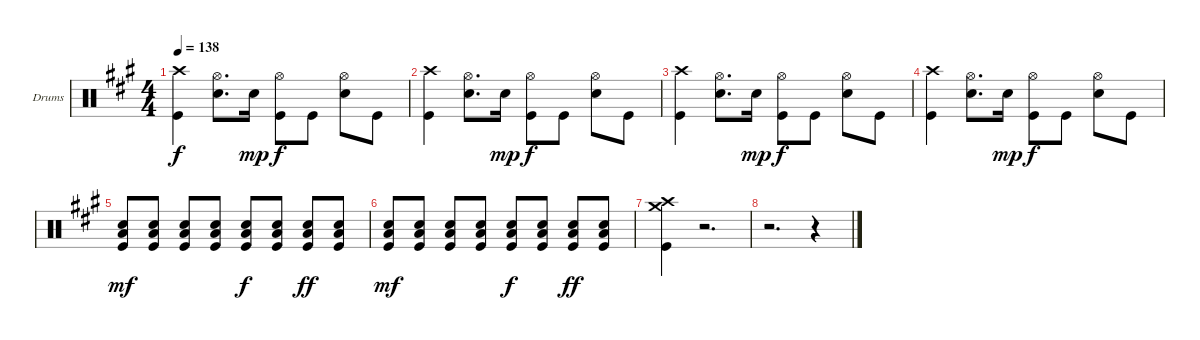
\defaultSystemsLayout 4
\bracketExtendMode groupsimilarinstruments
\firstSystemTrackNameOrientation horizontal
\otherSystemsTrackNameOrientation horizontal
\track ("Drumkit" "Drums") {instrument percussion}
\staff {score}
\articulation defaults
\ts (4 4)
\tempo 138
\clef neutral
\scale
0.941992
\ks a
("Crash high (hit)" "Kick (hit)").4{dy f} ("Hi-Hat (open)" "Snare (hit) 2").8{d} "Snare (hit) 2".16{dy mp} ("Hi-Hat (open)" "Kick (hit)").8{dy f} "Kick (hit)".8 ("Hi-Hat (open)" "Snare (hit) 2").8 "Kick (hit)".8 |
\scale
1.05801 ("Crash high (hit)" "Kick (hit)").4 ("Hi-Hat (open)" "Snare (hit) 2").8{d} "Snare (hit) 2".16{dy mp} ("Hi-Hat (open)" "Kick (hit)").8{dy f} "Kick (hit)".8 ("Hi-Hat (open)" "Snare (hit) 2").8 "Kick (hit)".8 |
\scale
0.941992 ("Crash high (hit)" "Kick (hit)").4 ("Hi-Hat (open)" "Snare (hit) 2").8{d} "Snare (hit) 2".16{dy mp} ("Hi-Hat (open)" "Kick (hit)").8{dy f} "Kick (hit)".8 ("Hi-Hat (open)" "Snare (hit) 2").8 "Kick (hit)".8 |
\scale
1.05801 ("Crash high (hit)" "Kick (hit)").4 ("Hi-Hat (open)" "Snare (hit) 2").8{d} "Snare (hit) 2".16{dy mp} ("Hi-Hat (open)" "Kick (hit)").8{dy f} "Kick (hit)".8 ("Hi-Hat (open)" "Snare (hit) 2").8 "Kick (hit)".8 |
\scale
0.941992 ("Snare (hit) 2" "Low Tom (hit)" "Kick (hit)").8{dy mf} ("Snare (hit) 2" "Low Tom (hit)" "Kick (hit)").8 ("Snare (hit) 2" "Low Tom (hit)" "Kick (hit)").8 ("Snare (hit) 2" "Low Tom (hit)" "Kick (hit)").8 ("Snare (hit) 2" "Low Tom (hit)" "Kick (hit)").8{dy f} ("Snare (hit) 2" "Low Tom (hit)" "Kick (hit)").8 ("Snare (hit) 2" "Low Tom (hit)" "Kick (hit)").8{dy ff} ("Snare (hit) 2" "Low Tom (hit)" "Kick (hit)").8 |
\scale
1.05801 ("Snare (hit) 2" "Low Tom (hit)" "Kick (hit)").8{dy mf} ("Snare (hit) 2" "Low Tom (hit)" "Kick (hit)").8 ("Snare (hit) 2" "Low Tom (hit)" "Kick (hit)").8 ("Snare (hit) 2" "Low Tom (hit)" "Kick (hit)").8 ("Snare (hit) 2" "Low Tom (hit)" "Kick (hit)").8{dy f} ("Snare (hit) 2" "Low Tom (hit)" "Kick (hit)").8 ("Snare (hit) 2" "Low Tom (hit)" "Kick (hit)").8{dy ff} ("Snare (hit) 2" "Low Tom (hit)" "Kick (hit)").8 |
\scale
0.941992 ("Crash high (hit)" "Crash medium (hit)" "Kick (hit)").4 r.2{d} |
r.2{d} r.4
